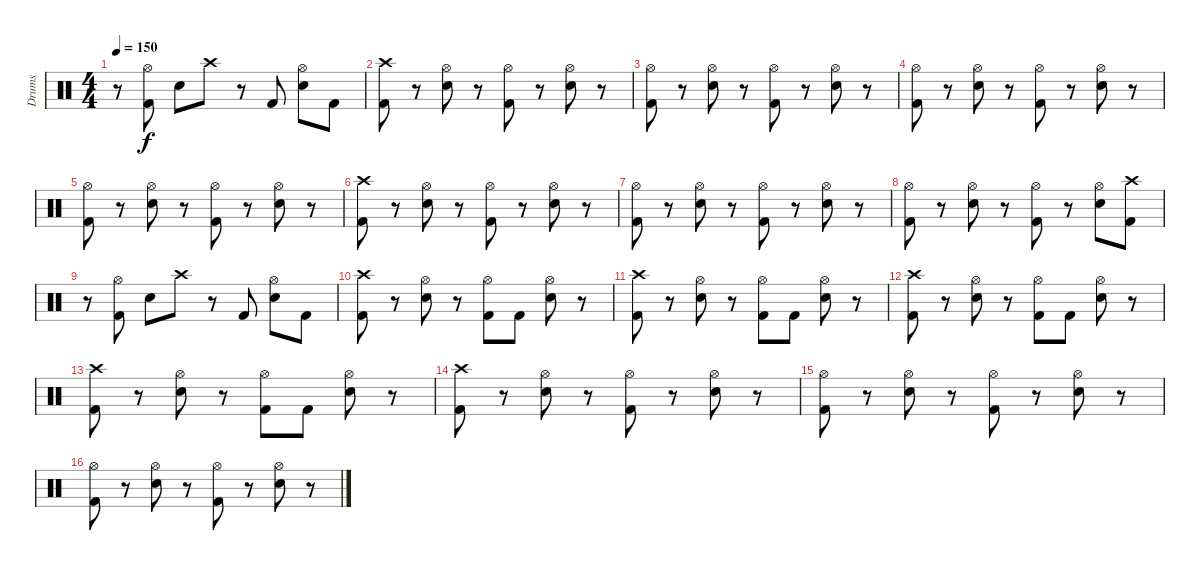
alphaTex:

\track ("Drums" "Drums") {instrument percussion}
\staff {score}
\articulation defaults
\ts (4 4)
\tempo 150
\clef neutral
\ks c
r.8{dy f} ("Hi-Hat (open)" "Kick (hit) 2").8 "Snare (hit) 2".8 "Crash high (hit)".8 r.8 "Kick (hit) 2".8 ("Hi-Hat (open)" "Snare (hit) 2").8 "Kick (hit) 2".8 |
("Crash high (hit)" "Kick (hit) 2").8 r.8 ("Hi-Hat (open)" "Snare (hit) 2").8 r.8 ("Hi-Hat (open)" "Kick (hit) 2").8 r.8 ("Hi-Hat (open)" "Snare (hit) 2").8 r.8 |
("Hi-Hat (open)" "Kick (hit) 2").8 r.8 ("Hi-Hat (open)" "Snare (hit) 2").8 r.8 ("Hi-Hat (open)" "Kick (hit) 2").8 r.8 ("Hi-Hat (open)" "Snare (hit) 2").8 r.8 |
("Hi-Hat (open)" "Kick (hit) 2").8 r.8 ("Hi-Hat (open)" "Snare (hit) 2").8 r.8 ("Hi-Hat (open)" "Kick (hit) 2").8 r.8 ("Hi-Hat (open)" "Snare (hit) 2").8 r.8 |
("Hi-Hat (open)" "Kick (hit) 2").8 r.8 ("Hi-Hat (open)" "Snare (hit) 2").8 r.8 ("Hi-Hat (open)" "Kick (hit) 2").8 r.8 ("Hi-Hat (open)" "Snare (hit) 2").8 r.8 |
("Crash high (hit)" "Kick (hit) 2").8 r.8 ("Hi-Hat (open)" "Snare (hit) 2").8 r.8 ("Hi-Hat (open)" "Kick (hit) 2").8 r.8 ("Hi-Hat (open)" "Snare (hit) 2").8 r.8 |
("Hi-Hat (open)" "Kick (hit) 2").8 r.8 ("Hi-Hat (open)" "Snare (hit) 2").8 r.8 ("Hi-Hat (open)" "Kick (hit) 2").8 r.8 ("Hi-Hat (open)" "Snare (hit) 2").8 r.8 |
("Hi-Hat (open)" "Kick (hit) 2").8 r.8 ("Hi-Hat (open)" "Snare (hit) 2").8 r.8 ("Hi-Hat (open)" "Kick (hit) 2").8 r.8 ("Hi-Hat (open)" "Snare (hit) 2").8 ("Crash high (hit)" "Kick (hit) 2").8 |
r.8 ("Hi-Hat (open)" "Kick (hit) 2").8 "Snare (hit) 2".8 "Crash high (hit)".8 r.8 "Kick (hit) 2".8 ("Hi-Hat (open)" "Snare (hit) 2").8 "Kick (hit) 2".8 |
("Crash high (hit)" "Kick (hit) 2").8 r.8 ("Hi-Hat (open)" "Snare (hit) 2").8 r.8 ("Hi-Hat (open)" "Kick (hit) 2").8 "Kick (hit) 2".8 ("Hi-Hat (open)" "Snare (hit) 2").8 r.8 |
("Crash high (hit)" "Kick (hit) 2").8 r.8 ("Hi-Hat (open)" "Snare (hit) 2").8 r.8 ("Hi-Hat (open)" "Kick (hit) 2").8 "Kick (hit) 2".8 ("Hi-Hat (open)" "Snare (hit) 2").8 r.8 |
("Crash high (hit)" "Kick (hit) 2").8 r.8 ("Hi-Hat (open)" "Snare (hit) 2").8 r.8 ("Hi-Hat (open)" "Kick (hit) 2").8 "Kick (hit) 2".8 ("Hi-Hat (open)" "Snare (hit) 2").8 r.8 |
("Crash high (hit)" "Kick (hit) 2").8 r.8 ("Hi-Hat (open)" "Snare (hit) 2").8 r.8 ("Hi-Hat (open)" "Kick (hit) 2").8 "Kick (hit) 2".8 ("Hi-Hat (open)" "Snare (hit) 2").8 r.8 |
("Crash high (hit)" "Kick (hit) 2").8 r.8 ("Hi-Hat (open)" "Snare (hit) 2").8 r.8 ("Hi-Hat (open)" "Kick (hit) 2").8 r.8 ("Hi-Hat (open)" "Snare (hit) 2").8 r.8 |
("Hi-Hat (open)" "Kick (hit) 2").8 r.8 ("Hi-Hat (open)" "Snare (hit) 2").8 r.8 ("Hi-Hat (open)" "Kick (hit) 2").8 r.8 ("Hi-Hat (open)" "Snare (hit) 2").8 r.8 |
("Hi-Hat (open)" "Kick (hit) 2").8 r.8 ("Hi-Hat (open)" "Snare (hit) 2").8 r.8 ("Hi-Hat (open)" "Kick (hit) 2").8 r.8 ("Hi-Hat (open)" "Snare (hit) 2").8 r.8
